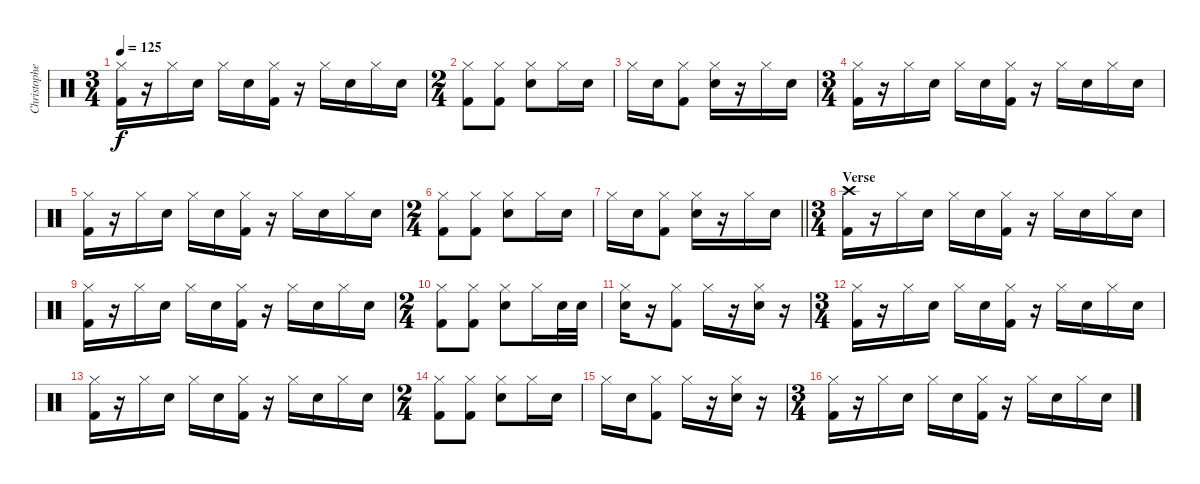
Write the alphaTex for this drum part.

\track ("Christopher - Drums" "Christophe") {instrument percussion}
\staff {score}
\articulation defaults
\ts (3 4)
\tempo 125
\clef neutral
\ks c
("Hi-Hat (closed)" "Kick (hit) 2").16{dy f} r.16 "Hi-Hat (closed)".16 "Electric Snare (hit)".16 "Hi-Hat (closed)".16 "Electric Snare (hit)".16 ("Hi-Hat (closed)" "Kick (hit) 2").16 r.16 "Hi-Hat (closed)".16 "Electric Snare (hit)".16 "Hi-Hat (closed)".16 "Electric Snare (hit)".16 |
\ts (2 4)
("Hi-Hat (closed)" "Kick (hit) 2").8 ("Hi-Hat (closed)" "Kick (hit) 2").8 ("Hi-Hat (closed)" "Electric Snare (hit)").8 "Hi-Hat (closed)".16 "Electric Snare (hit)".16 |
"Hi-Hat (closed)".16 "Electric Snare (hit)".16 ("Hi-Hat (closed)" "Kick (hit) 2").8 ("Hi-Hat (closed)" "Electric Snare (hit)").16 r.16 "Hi-Hat (closed)".16 "Electric Snare (hit)".16 |
\ts (3 4)
("Hi-Hat (closed)" "Kick (hit) 2").16 r.16 "Hi-Hat (closed)".16 "Electric Snare (hit)".16 "Hi-Hat (closed)".16 "Electric Snare (hit)".16 ("Hi-Hat (closed)" "Kick (hit) 2").16 r.16 "Hi-Hat (closed)".16 "Electric Snare (hit)".16 "Hi-Hat (closed)".16 "Electric Snare (hit)".16 |
("Hi-Hat (closed)" "Kick (hit) 2").16 r.16 "Hi-Hat (closed)".16 "Electric Snare (hit)".16 "Hi-Hat (closed)".16 "Electric Snare (hit)".16 ("Hi-Hat (closed)" "Kick (hit) 2").16 r.16 "Hi-Hat (closed)".16 "Electric Snare (hit)".16 "Hi-Hat (closed)".16 "Electric Snare (hit)".16 |
\ts (2 4)
("Hi-Hat (closed)" "Kick (hit) 2").8 ("Hi-Hat (closed)" "Kick (hit) 2").8 ("Hi-Hat (closed)" "Electric Snare (hit)").8 "Hi-Hat (closed)".16 "Electric Snare (hit)".16 |
\barLineRight lightlight "Hi-Hat (closed)".16 "Electric Snare (hit)".16
("Hi-Hat (closed)" "Kick (hit) 2").8 ("Hi-Hat (closed)" "Electric Snare (hit)").16 r.16 "Hi-Hat (closed)".16 "Electric Snare (hit)".16 |
\ts (3 4)
\section ("" "Verse")
("Crash high (hit)" "Kick (hit) 2").16 r.16 "Hi-Hat (closed)".16 "Electric Snare (hit)".16 "Hi-Hat (closed)".16 "Electric Snare (hit)".16 ("Hi-Hat (closed)" "Kick (hit) 2").16 r.16 "Hi-Hat (closed)".16 "Electric Snare (hit)".16 "Hi-Hat (closed)".16 "Electric Snare (hit)".16 |
("Hi-Hat (closed)" "Kick (hit) 2").16 r.16 "Hi-Hat (closed)".16 "Electric Snare (hit)".16 "Hi-Hat (closed)".16 "Electric Snare (hit)".16 ("Hi-Hat (closed)" "Kick (hit) 2").16 r.16 "Hi-Hat (closed)".16 "Electric Snare (hit)".16 "Hi-Hat (closed)".16 "Electric Snare (hit)".16 |
\ts (2 4)
("Hi-Hat (closed)" "Kick (hit) 2").8 ("Hi-Hat (closed)" "Kick (hit) 2").8 ("Hi-Hat (closed)" "Electric Snare (hit)").8 "Hi-Hat (closed)".16 "Electric Snare (hit)".32 "Electric Snare (hit)".32 |
("Hi-Hat (closed)" "Electric Snare (hit)").16 r.16 ("Hi-Hat (closed)" "Kick (hit) 2").8 "Hi-Hat (closed)".16 r.16 ("Hi-Hat (closed)" "Electric Snare (hit)").16 r.16 |
\ts (3 4)
("Hi-Hat (closed)" "Kick (hit) 2").16 r.16 "Hi-Hat (closed)".16 "Electric Snare (hit)".16 "Hi-Hat (closed)".16 "Electric Snare (hit)".16 ("Hi-Hat (closed)" "Kick (hit) 2").16 r.16 "Hi-Hat (closed)".16 "Electric Snare (hit)".16 "Hi-Hat (closed)".16 "Electric Snare (hit)".16 |
("Hi-Hat (closed)" "Kick (hit) 2").16 r.16 "Hi-Hat (closed)".16 "Electric Snare (hit)".16 "Hi-Hat (closed)".16 "Electric Snare (hit)".16 ("Hi-Hat (closed)" "Kick (hit) 2").16 r.16 "Hi-Hat (closed)".16 "Electric Snare (hit)".16 "Hi-Hat (closed)".16 "Electric Snare (hit)".16 |
\ts (2 4)
("Hi-Hat (closed)" "Kick (hit) 2").8 ("Hi-Hat (closed)" "Kick (hit) 2").8 ("Hi-Hat (closed)" "Electric Snare (hit)").8 "Hi-Hat (closed)".16 "Electric Snare (hit)".16 |
"Hi-Hat (closed)".16 "Electric Snare (hit)".16 ("Hi-Hat (closed)" "Kick (hit) 2").8 "Hi-Hat (closed)".16 r.16 ("Hi-Hat (closed)" "Electric Snare (hit)").16 r.16 |
\ts (3 4)
("Hi-Hat (closed)" "Kick (hit) 2").16 r.16 "Hi-Hat (closed)".16 "Electric Snare (hit)".16 "Hi-Hat (closed)".16 "Electric Snare (hit)".16 ("Hi-Hat (closed)" "Kick (hit) 2").16 r.16 "Hi-Hat (closed)".16 "Electric Snare (hit)".16 "Hi-Hat (closed)".16 "Electric Snare (hit)".16
